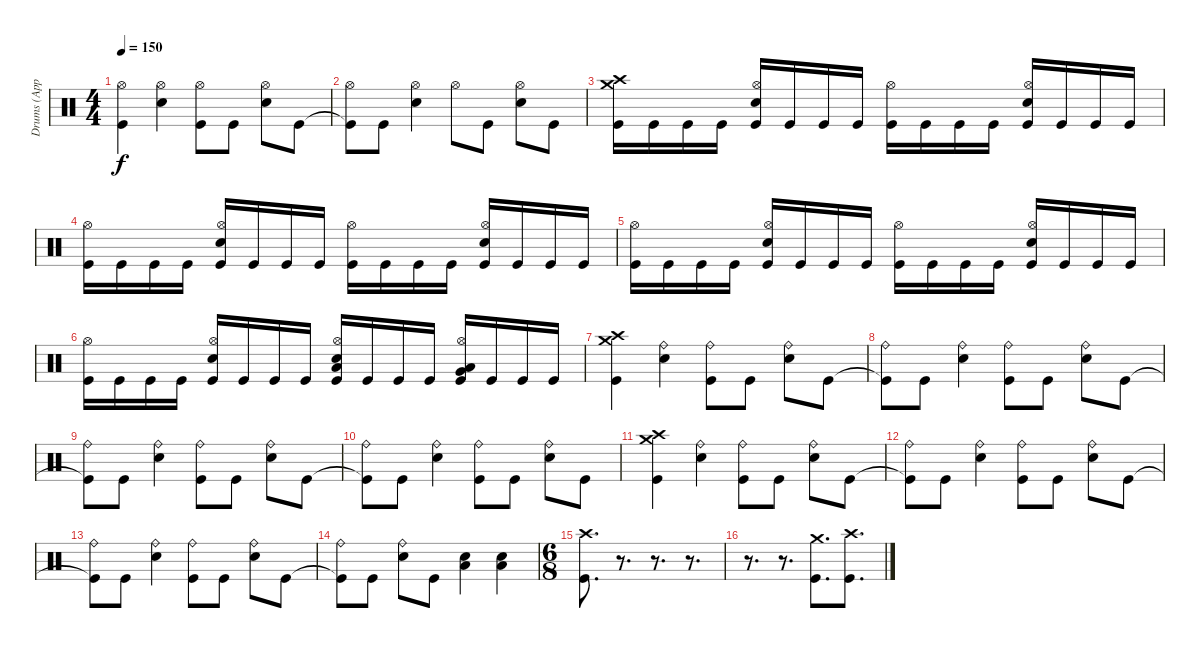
\track ("Drums (Appelhans/Durst)" "Drums (App") {instrument percussion}
\staff {score}
\articulation defaults
\ts (4 4)
\tempo 150
\clef neutral
\ks c
("Kick (hit)" "Hi-Hat (open)").4{dy f} ("Snare (hit) 2" "Hi-Hat (open)").4 ("Kick (hit)" "Hi-Hat (open)").8 "Kick (hit)".8 ("Snare (hit) 2" "Hi-Hat (open)").8 "Kick (hit)".8 |
("Kick (hit)"{t} "Hi-Hat (open)").8 "Kick (hit)".8 ("Snare (hit) 2" "Hi-Hat (open)").4 "Hi-Hat (open)".8 "Kick (hit)".8 ("Snare (hit) 2" "Hi-Hat (open)").8 "Kick (hit)".8 |
("Kick (hit)" "Crash medium (hit)" "Crash high (hit)").16 "Kick (hit)".16 "Kick (hit)".16 "Kick (hit)".16 ("Kick (hit)" "Hi-Hat (open)" "Snare (hit) 2").16 "Kick (hit)".16 "Kick (hit)".16 "Kick (hit)".16 ("Kick (hit)" "Hi-Hat (open)").16 "Kick (hit)".16 "Kick (hit)".16 "Kick (hit)".16 ("Kick (hit)" "Hi-Hat (open)" "Snare (hit) 2").16 "Kick (hit)".16 "Kick (hit)".16 "Kick (hit)".16 |
("Kick (hit)" "Hi-Hat (open)").16 "Kick (hit)".16 "Kick (hit)".16 "Kick (hit)".16 ("Kick (hit)" "Hi-Hat (open)" "Snare (hit) 2").16 "Kick (hit)".16 "Kick (hit)".16 "Kick (hit)".16 ("Kick (hit)" "Hi-Hat (open)").16 "Kick (hit)".16 "Kick (hit)".16 "Kick (hit)".16 ("Kick (hit)" "Hi-Hat (open)" "Snare (hit) 2").16 "Kick (hit)".16 "Kick (hit)".16 "Kick (hit)".16 |
("Kick (hit)" "Hi-Hat (open)").16 "Kick (hit)".16 "Kick (hit)".16 "Kick (hit)".16 ("Kick (hit)" "Hi-Hat (open)" "Snare (hit) 2").16 "Kick (hit)".16 "Kick (hit)".16 "Kick (hit)".16 ("Kick (hit)" "Hi-Hat (open)").16 "Kick (hit)".16 "Kick (hit)".16 "Kick (hit)".16 ("Kick (hit)" "Hi-Hat (open)" "Snare (hit) 2").16 "Kick (hit)".16 "Kick (hit)".16 "Kick (hit)".16 |
("Kick (hit)" "Hi-Hat (open)").16 "Kick (hit)".16 "Kick (hit)".16 "Kick (hit)".16 ("Kick (hit)" "Hi-Hat (open)" "Snare (hit) 2").16 "Kick (hit)".16 "Kick (hit)".16 "Kick (hit)".16 ("Kick (hit)" "Hi-Hat (open)" "Snare (hit) 2" "Low Tom (hit)").16 "Kick (hit)".16 "Kick (hit)".16 "Kick (hit)".16 ("Kick (hit)" "Hi-Hat (open)" "Low Tom (hit)" "Very Low Tom (hit)").16 "Kick (hit)".16 "Kick (hit)".16 "Kick (hit)".16 |
("Kick (hit)" "Crash high (hit)" "Crash medium (hit)").4 ("Snare (hit) 2" "Ride (bell)").4 ("Kick (hit)" "Ride (bell)").8 "Kick (hit)".8 ("Snare (hit) 2" "Ride (bell)").8 "Kick (hit)".8 |
("Kick (hit)"{t} "Ride (bell)").8 "Kick (hit)".8 ("Snare (hit) 2" "Ride (bell)").4 ("Kick (hit)" "Ride (bell)").8 "Kick (hit)".8 ("Snare (hit) 2" "Ride (bell)").8 "Kick (hit)".8 |
("Kick (hit)"{t} "Ride (bell)").8 "Kick (hit)".8 ("Snare (hit) 2" "Ride (bell)").4 ("Kick (hit)" "Ride (bell)").8 "Kick (hit)".8 ("Snare (hit) 2" "Ride (bell)").8 "Kick (hit)".8 |
("Kick (hit)"{t} "Ride (bell)").8 "Kick (hit)".8 ("Snare (hit) 2" "Ride (bell)").4 ("Kick (hit)" "Ride (bell)").8 "Kick (hit)".8 ("Snare (hit) 2" "Ride (bell)").8 "Kick (hit)".8 |
("Kick (hit)" "Crash high (hit)" "Crash medium (hit)").4 ("Snare (hit) 2" "Ride (bell)").4 ("Kick (hit)" "Ride (bell)").8 "Kick (hit)".8 ("Snare (hit) 2" "Ride (bell)").8 "Kick (hit)".8 |
("Kick (hit)"{t} "Ride (bell)").8 "Kick (hit)".8 ("Snare (hit) 2" "Ride (bell)").4 ("Kick (hit)" "Ride (bell)").8 "Kick (hit)".8 ("Snare (hit) 2" "Ride (bell)").8 "Kick (hit)".8 |
("Kick (hit)"{t} "Ride (bell)").8 "Kick (hit)".8 ("Snare (hit) 2" "Ride (bell)").4 ("Kick (hit)" "Ride (bell)").8 "Kick (hit)".8 ("Snare (hit) 2" "Ride (bell)").8 "Kick (hit)".8 |
("Kick (hit)"{t} "Ride (bell)").8 "Kick (hit)".8 ("Snare (hit) 2" "Ride (bell)").8 "Kick (hit)".8 ("Snare (hit) 2" "Low Tom (hit)").4 ("Low Tom (hit)" "Snare (hit) 2").4 |
\ts (6 8)
("Crash high (hit)" "Kick (hit)").8{d} r.8{d} r.8{d} r.8{d} |
r.8{d} r.8{d} ("Kick (hit)" "Crash medium (hit)").8{d} ("Kick (hit)" "Crash high (hit)").8{d}
